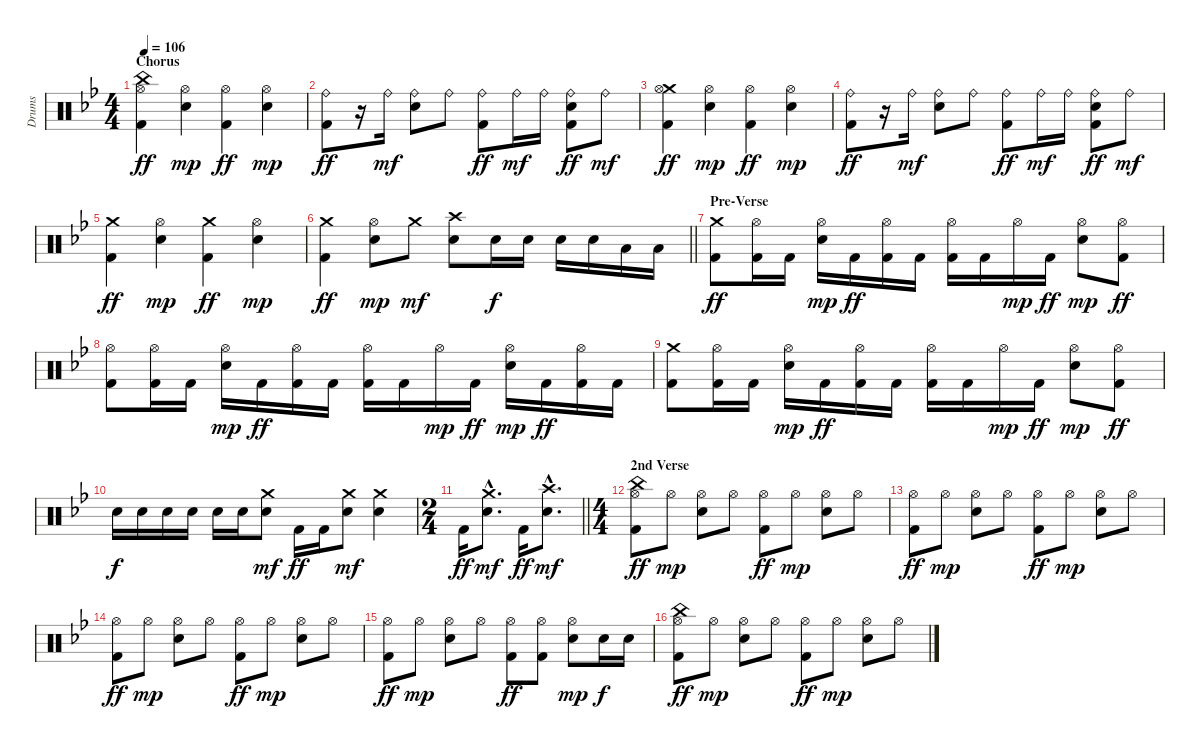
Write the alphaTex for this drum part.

\track ("Drums" "Drums") {instrument percussion}
\staff {score}
\articulation defaults
\ts (4 4)
\section ("" "Chorus")
\tempo 106
\clef neutral
\ks bb
("China (hit)" "Hi-Hat (open)" "Kick (hit) 2").4{dy ff} ("Hi-Hat (open)" "Electric Snare (hit)").4{dy mp} ("Hi-Hat (open)" "Kick (hit) 2").4{dy ff} ("Hi-Hat (open)" "Electric Snare (hit)").4{dy mp} |
("Ride (bell)" "Kick (hit) 2").8{dy ff} r.16 "Ride (bell)".16{dy mf} ("Ride (bell)" "Electric Snare (hit)").8 "Ride (bell)".8 ("Ride (bell)" "Kick (hit) 2").8{dy ff} "Ride (bell)".16{dy mf} "Ride (bell)".16 ("Ride (bell)" "Electric Snare (hit)" "Kick (hit) 2").8{dy ff} "Ride (bell)".8{dy mf} |
("Crash medium (hit)" "Hi-Hat (open)" "Kick (hit) 2").4{dy ff} ("Hi-Hat (open)" "Electric Snare (hit)").4{dy mp} ("Hi-Hat (open)" "Kick (hit) 2").4{dy ff} ("Hi-Hat (open)" "Electric Snare (hit)").4{dy mp} |
("Ride (bell)" "Kick (hit) 2").8{dy ff} r.16 "Ride (bell)".16{dy mf} ("Ride (bell)" "Electric Snare (hit)").8 "Ride (bell)".8 ("Ride (bell)" "Kick (hit) 2").8{dy ff} "Ride (bell)".16{dy mf} "Ride (bell)".16 ("Ride (bell)" "Electric Snare (hit)" "Kick (hit) 2").8{dy ff} "Ride (bell)".8{dy mf} |
("Crash medium (hit)" "Kick (hit) 2").4{dy ff} ("Hi-Hat (open)" "Electric Snare (hit)").4{dy mp} ("Crash medium (hit)" "Kick (hit) 2").4{dy ff} ("Hi-Hat (open)" "Electric Snare (hit)").4{dy mp} |
\barLineRight lightlight
("Crash medium (hit)" "Kick (hit) 2").4{dy ff} ("Hi-Hat (open)" "Electric Snare (hit)").8{dy mp} "Crash medium (hit)".8{dy mf} ("Crash high (hit)" "Electric Snare (hit)").8 "Electric Snare (hit)".16{dy f} "Electric Snare (hit)".16 "Electric Snare (hit)".16 "Electric Snare (hit)".16 "Low Tom (hit)".16 "Low Tom (hit)".16 |
\section ("" "Pre-Verse")
("Crash medium (hit)" "Kick (hit) 2").8{dy ff} ("Hi-Hat (open)" "Kick (hit) 2").16 "Kick (hit) 2".16 ("Hi-Hat (open)" "Electric Snare (hit)").16{dy mp} "Kick (hit) 2".16{dy ff} ("Hi-Hat (open)" "Kick (hit) 2").16 "Kick (hit) 2".16 ("Hi-Hat (open)" "Kick (hit) 2").16 "Kick (hit) 2".16 "Hi-Hat (open)".16{dy mp} "Kick (hit) 2".16{dy ff} ("Hi-Hat (open)" "Electric Snare (hit)").8{dy mp} ("Hi-Hat (open)" "Kick (hit) 2").8{dy ff} |
("Hi-Hat (open)" "Kick (hit) 2").8 ("Hi-Hat (open)" "Kick (hit) 2").16 "Kick (hit) 2".16 ("Hi-Hat (open)" "Electric Snare (hit)").16{dy mp} "Kick (hit) 2".16{dy ff} ("Hi-Hat (open)" "Kick (hit) 2").16 "Kick (hit) 2".16 ("Hi-Hat (open)" "Kick (hit) 2").16 "Kick (hit) 2".16 "Hi-Hat (open)".16{dy mp} "Kick (hit) 2".16{dy ff} ("Hi-Hat (open)" "Electric Snare (hit)").16{dy mp} "Kick (hit) 2".16{dy ff} ("Hi-Hat (open)" "Kick (hit) 2").16 "Kick (hit) 2".16 |
("Crash medium (hit)" "Kick (hit) 2").8 ("Hi-Hat (open)" "Kick (hit) 2").16 "Kick (hit) 2".16 ("Hi-Hat (open)" "Electric Snare (hit)").16{dy mp} "Kick (hit) 2".16{dy ff} ("Hi-Hat (open)" "Kick (hit) 2").16 "Kick (hit) 2".16 ("Hi-Hat (open)" "Kick (hit) 2").16 "Kick (hit) 2".16 "Hi-Hat (open)".16{dy mp} "Kick (hit) 2".16{dy ff} ("Hi-Hat (open)" "Electric Snare (hit)").8{dy mp} ("Hi-Hat (open)" "Kick (hit) 2").8{dy ff} |
"Electric Snare (hit)".16{dy f} "Electric Snare (hit)".16 "Electric Snare (hit)".16 "Electric Snare (hit)".16 "Electric Snare (hit)".16 "Electric Snare (hit)".16 ("Crash medium (hit)" "Electric Snare (hit)").8{dy mf} "Kick (hit) 2".16{dy ff} "Kick (hit) 2".16 ("Crash medium (hit)" "Electric Snare (hit)").8{dy mf} ("Crash medium (hit)" "Electric Snare (hit)").4 |
\ts (2 4)
\barLineRight lightlight "Kick (hit) 2".16{dy ff}
("Crash medium (hit)"{hac} "Electric Snare (hit)"{hac}).8{d dy mf} "Kick (hit) 2".16{dy ff} ("Crash high (hit)"{hac} "Electric Snare (hit)"{hac}).8{d dy mf} |
\ts (4 4)
\section ("" "2nd Verse")
("China (hit)" "Hi-Hat (open)" "Kick (hit) 2").8{dy ff} "Hi-Hat (open)".8{dy mp} ("Hi-Hat (open)" "Electric Snare (hit)").8 "Hi-Hat (open)".8 ("Hi-Hat (open)" "Kick (hit) 2").8{dy ff} "Hi-Hat (open)".8{dy mp} ("Hi-Hat (open)" "Electric Snare (hit)").8 "Hi-Hat (open)".8 |
("Hi-Hat (open)" "Kick (hit) 2").8{dy ff} "Hi-Hat (open)".8{dy mp} ("Hi-Hat (open)" "Electric Snare (hit)").8 "Hi-Hat (open)".8 ("Hi-Hat (open)" "Kick (hit) 2").8{dy ff} "Hi-Hat (open)".8{dy mp} ("Hi-Hat (open)" "Electric Snare (hit)").8 "Hi-Hat (open)".8 |
("Hi-Hat (open)" "Kick (hit) 2").8{dy ff} "Hi-Hat (open)".8{dy mp} ("Hi-Hat (open)" "Electric Snare (hit)").8 "Hi-Hat (open)".8 ("Hi-Hat (open)" "Kick (hit) 2").8{dy ff} "Hi-Hat (open)".8{dy mp} ("Hi-Hat (open)" "Electric Snare (hit)").8 "Hi-Hat (open)".8 |
("Hi-Hat (open)" "Kick (hit) 2").8{dy ff} "Hi-Hat (open)".8{dy mp} ("Hi-Hat (open)" "Electric Snare (hit)").8 "Hi-Hat (open)".8 ("Hi-Hat (open)" "Kick (hit) 2").8{dy ff} ("Hi-Hat (open)" "Kick (hit) 2").8 ("Hi-Hat (open)" "Electric Snare (hit)").8{dy mp} "Electric Snare (hit)".16{dy f} "Electric Snare (hit)".16 |
("China (hit)" "Hi-Hat (open)" "Kick (hit) 2").8{dy ff} "Hi-Hat (open)".8{dy mp} ("Hi-Hat (open)" "Electric Snare (hit)").8 "Hi-Hat (open)".8 ("Hi-Hat (open)" "Kick (hit) 2").8{dy ff} "Hi-Hat (open)".8{dy mp} ("Hi-Hat (open)" "Electric Snare (hit)").8 "Hi-Hat (open)".8
